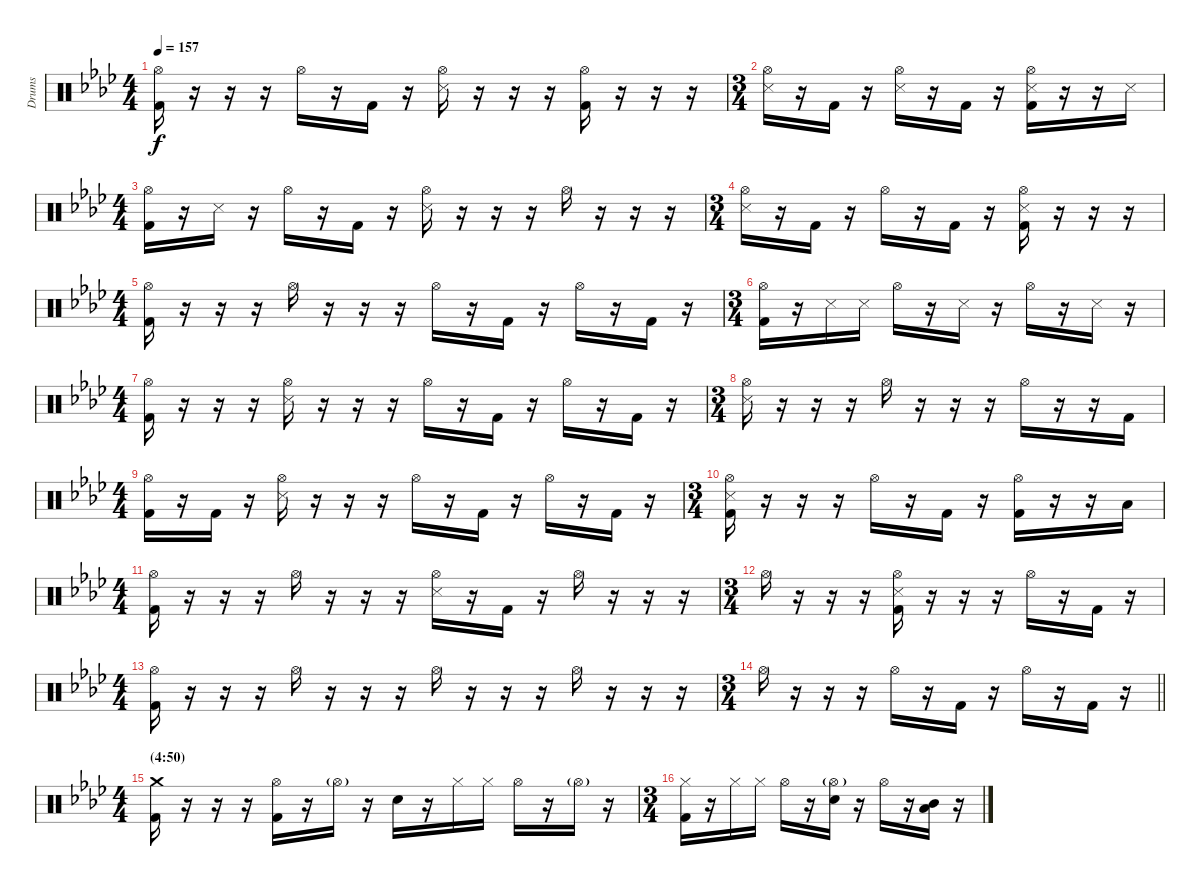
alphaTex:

\bracketExtendMode groupsimilarinstruments
\otherSystemsTrackNameOrientation horizontal
\track ("Guyot Begin-Benoit" "Drums") {instrument percussion}
\staff {score}
\articulation defaults
\ts (4 4)
\beaming (8 2 2 2 2)
\tempo 157
\clef neutral
\ks ab
("Hi-Hat (open)"{acc forcenatural} "Kick (hit) 2"{acc forcenatural}).16{dy f beam Down} r.16{beam Down} r.16{beam Down} r.16{beam Down} "Hi-Hat (open)"{acc forcenatural}.16{beam Down} r.16{beam Down} "Kick (hit) 2"{acc forcenatural}.16{beam Down} r.16{beam Down} ("Hi-Hat (open)"{acc forcenatural} "Snare (side stick) 3"{acc forcenatural}).16{beam Down} r.16{beam Down} r.16{beam Down} r.16{beam Down} ("Hi-Hat (open)"{acc forcenatural} "Kick (hit) 2"{acc forcenatural}).16{beam Down} r.16{beam Down} r.16{beam Down} r.16{beam Down} |
\ts (3 4)
\beaming (8 2 2 2 2)
("Hi-Hat (open)"{acc forcenatural} "Snare (side stick) 3"{acc forcenatural}).16{beam Down} r.16{beam Down} "Kick (hit) 2"{acc forcenatural}.16{beam Down} r.16{beam Down} ("Hi-Hat (open)"{acc forcenatural} "Snare (side stick) 3"{acc forcenatural}).16{beam Down} r.16{beam Down} "Kick (hit) 2"{acc forcenatural}.16{beam Down} r.16{beam Down} ("Hi-Hat (open)"{acc forcenatural} "Snare (side stick) 3"{acc forcenatural} "Kick (hit) 2"{acc forcenatural}).16{beam Down} r.16{beam Down} r.16{beam Down} "Snare (side stick) 3"{acc forcenatural}.16{beam Down} |
\ts (4 4)
\beaming (8 2 2 2 2)
("Hi-Hat (open)"{acc forcenatural} "Kick (hit) 2"{acc forcenatural}).16{beam Down} r.16{beam Down} "Snare (side stick) 3"{acc forcenatural}.16{beam Down} r.16{beam Down} "Hi-Hat (open)"{acc forcenatural}.16{beam Down} r.16{beam Down} "Kick (hit) 2"{acc forcenatural}.16{beam Down} r.16{beam Down} ("Hi-Hat (open)"{acc forcenatural} "Snare (side stick) 3"{acc forcenatural}).16{beam Down} r.16{beam Down} r.16{beam Down} r.16{beam Down} "Hi-Hat (open)"{acc forcenatural}.16{beam Down} r.16{beam Down} r.16{beam Down} r.16{beam Down} |
\ts (3 4)
\beaming (8 2 2 2 2)
("Hi-Hat (open)"{acc forcenatural} "Snare (side stick) 3"{acc forcenatural}).16{beam Down} r.16{beam Down} "Kick (hit) 2"{acc forcenatural}.16{beam Down} r.16{beam Down} "Hi-Hat (open)"{acc forcenatural}.16{beam Down} r.16{beam Down} "Kick (hit) 2"{acc forcenatural}.16{beam Down} r.16{beam Down} ("Hi-Hat (open)"{acc forcenatural} "Snare (side stick) 3"{acc forcenatural} "Kick (hit) 2"{acc forcenatural}).16{beam Down} r.16{beam Down} r.16{beam Down} r.16{beam Down} |
\ts (4 4)
\beaming (8 2 2 2 2)
("Hi-Hat (open)"{acc forcenatural} "Kick (hit) 2"{acc forcenatural}).16{beam Down} r.16{beam Down} r.16{beam Down} r.16{beam Down} "Hi-Hat (open)"{acc forcenatural}.16{beam Down} r.16{beam Down} r.16{beam Down} r.16{beam Down} "Hi-Hat (open)"{acc forcenatural}.16{beam Down} r.16{beam Down} "Kick (hit) 2"{acc forcenatural}.16{beam Down} r.16{beam Down} "Hi-Hat (open)"{acc forcenatural}.16{beam Down} r.16{beam Down} "Kick (hit) 2"{acc forcenatural}.16{beam Down} r.16{beam Down} |
\ts (3 4)
\beaming (8 2 2 2 2)
("Hi-Hat (open)"{acc forcenatural} "Kick (hit) 2"{acc forcenatural}).16{beam Down} r.16{beam Down} "Snare (side stick) 3"{acc forcenatural}.16{beam Down} "Snare (side stick) 3"{acc forcenatural}.16{beam Down} "Hi-Hat (open)"{acc forcenatural}.16{beam Down} r.16{beam Down} "Snare (side stick) 3"{acc forcenatural}.16{beam Down} r.16{beam Down} "Hi-Hat (open)"{acc forcenatural}.16{beam Down} r.16{beam Down} "Snare (side stick) 3"{acc forcenatural}.16{beam Down} r.16{beam Down} |
\ts (4 4)
\beaming (8 2 2 2 2)
("Hi-Hat (open)"{acc forcenatural} "Kick (hit) 2"{acc forcenatural}).16{beam Down} r.16{beam Down} r.16{beam Down} r.16{beam Down} ("Hi-Hat (open)"{acc forcenatural} "Snare (side stick) 3"{acc forcenatural}).16{beam Down} r.16{beam Down} r.16{beam Down} r.16{beam Down} "Hi-Hat (open)"{acc forcenatural}.16{beam Down} r.16{beam Down} "Kick (hit) 2"{acc forcenatural}.16{beam Down} r.16{beam Down} "Hi-Hat (open)"{acc forcenatural}.16{beam Down} r.16{beam Down} "Kick (hit) 2"{acc forcenatural}.16{beam Down} r.16{beam Down} |
\ts (3 4)
\beaming (8 2 2 2 2)
("Hi-Hat (open)"{acc forcenatural} "Snare (side stick) 3"{acc forcenatural}).16{beam Down} r.16{beam Down} r.16{beam Down} r.16{beam Down} "Hi-Hat (open)"{acc forcenatural}.16{beam Down} r.16{beam Down} r.16{beam Down} r.16{beam Down} "Hi-Hat (open)"{acc forcenatural}.16{beam Down} r.16{beam Down} r.16{beam Down} "Kick (hit) 2"{acc forcenatural}.16{beam Down} |
\ts (4 4)
\beaming (8 2 2 2 2)
("Hi-Hat (open)"{acc forcenatural} "Kick (hit) 2"{acc forcenatural}).16{beam Down} r.16{beam Down} "Kick (hit) 2"{acc forcenatural}.16{beam Down} r.16{beam Down} ("Hi-Hat (open)"{acc forcenatural} "Snare (side stick) 3"{acc forcenatural}).16{beam Down} r.16{beam Down} r.16{beam Down} r.16{beam Down} "Hi-Hat (open)"{acc forcenatural}.16{beam Down} r.16{beam Down} "Kick (hit) 2"{acc forcenatural}.16{beam Down} r.16{beam Down} "Hi-Hat (open)"{acc forcenatural}.16{beam Down} r.16{beam Down} "Kick (hit) 2"{acc forcenatural}.16{beam Down} r.16{beam Down} |
\ts (3 4)
\beaming (8 2 2 2 2)
("Hi-Hat (open)"{acc forcenatural} "Snare (side stick) 3"{acc forcenatural} "Kick (hit) 2"{acc forcenatural}).16{beam Down} r.16{beam Down} r.16{beam Down} r.16{beam Down} "Hi-Hat (open)"{acc forcenatural}.16{beam Down} r.16{beam Down} "Kick (hit) 2"{acc forcenatural}.16{beam Down} r.16{beam Down} ("Hi-Hat (open)"{acc forcenatural} "Kick (hit) 2"{acc forcenatural}).16{beam Down} r.16{beam Down} r.16{beam Down} "Low Tom (hit)"{acc forcenatural}.16{beam Down} |
\ts (4 4)
\beaming (8 2 2 2 2)
("Hi-Hat (open)"{acc forcenatural} "Kick (hit) 2"{acc forcenatural}).16{beam Down} r.16{beam Down} r.16{beam Down} r.16{beam Down} "Hi-Hat (open)"{acc forcenatural}.16{beam Down} r.16{beam Down} r.16{beam Down} r.16{beam Down} ("Hi-Hat (open)"{acc forcenatural} "Snare (side stick) 3"{acc forcenatural}).16{beam Down} r.16{beam Down} "Kick (hit) 2"{acc forcenatural}.16{beam Down} r.16{beam Down} "Hi-Hat (open)"{acc forcenatural}.16{beam Down} r.16{beam Down} r.16{beam Down} r.16{beam Down} |
\ts (3 4)
\beaming (8 2 2 2 2)
"Hi-Hat (open)"{acc forcenatural}.16{beam Down} r.16{beam Down} r.16{beam Down} r.16{beam Down} ("Hi-Hat (open)"{acc forcenatural} "Snare (side stick) 3"{acc forcenatural} "Kick (hit) 2"{acc forcenatural}).16{beam Down} r.16{beam Down} r.16{beam Down} r.16{beam Down} "Hi-Hat (open)"{acc forcenatural}.16{beam Down} r.16{beam Down} "Kick (hit) 2"{acc forcenatural}.16{beam Down} r.16{beam Down} |
\ts (4 4)
\beaming (8 2 2 2 2)
("Hi-Hat (open)"{acc forcenatural} "Kick (hit) 2"{acc forcenatural}).16{beam Down} r.16{beam Down} r.16{beam Down} r.16{beam Down} "Hi-Hat (open)"{acc forcenatural}.16{beam Down} r.16{beam Down} r.16{beam Down} r.16{beam Down} "Hi-Hat (open)"{acc forcenatural}.16{beam Down} r.16{beam Down} r.16{beam Down} r.16{beam Down} "Hi-Hat (open)"{acc forcenatural}.16{beam Down} r.16{beam Down} r.16{beam Down} r.16{beam Down} |
\ts (3 4)
\beaming (8 2 2 2 2)
\barLineRight lightlight "Hi-Hat (open)"{acc forcenatural}.16{beam Down}
r.16{beam Down} r.16{beam Down} r.16{beam Down} "Hi-Hat (open)"{acc forcenatural}.16{beam Down} r.16{beam Down} "Kick (hit) 2"{acc forcenatural}.16{beam Down} r.16{beam Down} "Hi-Hat (open)"{acc forcenatural}.16{beam Down} r.16{beam Down} "Kick (hit) 2"{acc forcenatural}.16{beam Down} r.16{beam Down} |
\ts (4 4)
\beaming (8 2 2 2 2)
\section ("" "(4:50)")
("Crash medium (hit)"{acc forcenatural} "Kick (hit) 2"{acc forcenatural}).16{beam Down} r.16{beam Down} r.16{beam Down} r.16{beam Down} ("Hi-Hat (open)"{acc forcenatural} "Kick (hit) 2"{acc forcenatural}).16{beam Down} r.16{beam Down} "Hi-Hat (open)"{g acc forcenatural}.16{beam Down} r.16{beam Down} "Snare (hit) 2"{acc forcenatural}.16{beam Down} r.16{beam Down} "Hi-Hat (closed)"{acc forcenatural}.16{beam Down} "Hi-Hat (closed)"{acc forcenatural}.16{beam Down} "Hi-Hat (open)"{acc forcenatural}.16{beam Down} r.16{beam Down} "Hi-Hat (open)"{g acc forcenatural}.16{beam Down} r.16{beam Down} |
\ts (3 4)
\beaming (8 2 2 2 2)
("Hi-Hat (closed)"{acc forcenatural} "Kick (hit) 2"{acc forcenatural}).16{beam Down} r.16{beam Down} "Hi-Hat (closed)"{acc forcenatural}.16{beam Down} "Hi-Hat (closed)"{acc forcenatural}.16{beam Down} "Hi-Hat (open)"{acc forcenatural}.16{beam Down} r.16{beam Down} ("Hi-Hat (open)"{g acc forcenatural} "Snare (hit) 2"{acc forcenatural}).16{beam Down} r.16{beam Down} "Hi-Hat (open)"{acc forcenatural}.16{beam Down} r.16{beam Down} ("Mid Tom (hit)"{acc forcenatural} "Low Tom (hit)"{acc forcenatural}).16{beam Down} r.16{beam Down}
